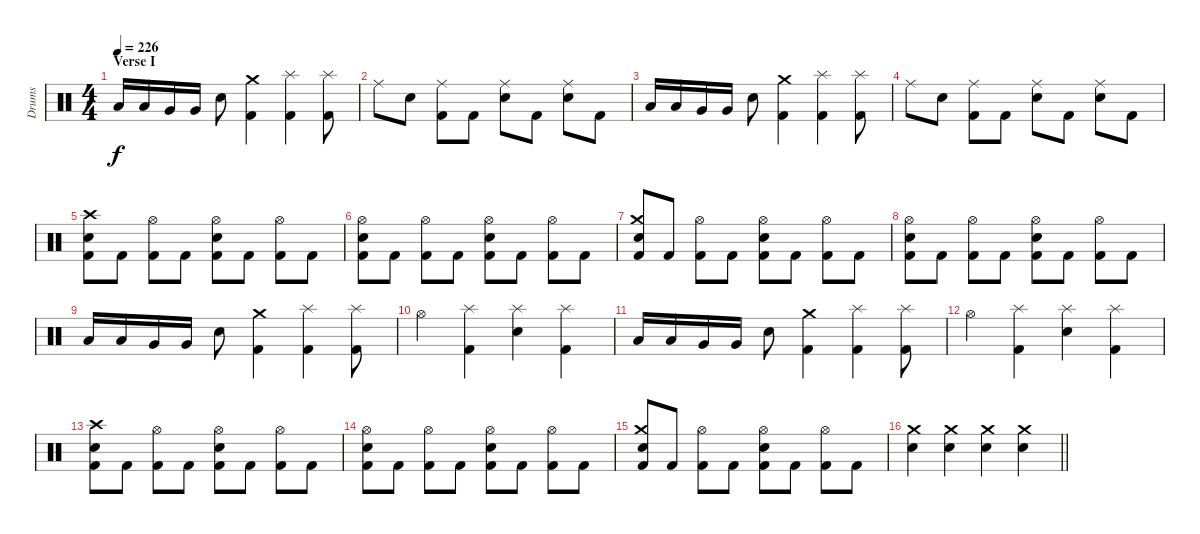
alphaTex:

\track ("Drums" "Drums") {instrument percussion}
\staff {score}
\articulation defaults
\ts (4 4)
\section ("" "Verse I")
\tempo 226
\clef neutral
\ks c "Low Tom (hit)".16{dy f} "Low Tom (hit)".16 "Very Low Tom (hit)".16 "Very Low Tom (hit)".16 "Snare (hit) 2".8
("Crash medium (hit)" "Kick (hit) 2").4 ("Splash (hit)" "Kick (hit) 2").4 ("Splash (hit)" "Kick (hit) 2").8 |
"Ride (middle)".8 "Snare (hit) 2".8 ("Ride (middle)" "Kick (hit) 2").8 "Kick (hit) 2".8 ("Ride (middle)" "Snare (hit) 2").8 "Kick (hit) 2".8 ("Ride (middle)" "Snare (hit) 2").8 "Kick (hit) 2".8 |
"Low Tom (hit)".16 "Low Tom (hit)".16 "Very Low Tom (hit)".16 "Very Low Tom (hit)".16 "Snare (hit) 2".8 ("Crash medium (hit)" "Kick (hit) 2").4 ("Splash (hit)" "Kick (hit) 2").4 ("Splash (hit)" "Kick (hit) 2").8 |
"Ride (middle)".8 "Snare (hit) 2".8 ("Ride (middle)" "Kick (hit) 2").8 "Kick (hit) 2".8 ("Ride (middle)" "Snare (hit) 2").8 "Kick (hit) 2".8 ("Ride (middle)" "Snare (hit) 2").8 "Kick (hit) 2".8 |
("Crash high (hit)" "Snare (hit) 2" "Kick (hit) 2").8 "Kick (hit) 2".8 ("Hi-Hat (open)" "Kick (hit) 2").8 "Kick (hit) 2".8 ("Hi-Hat (open)" "Snare (hit) 2" "Kick (hit) 2").8 "Kick (hit) 2".8 ("Hi-Hat (open)" "Kick (hit) 2").8 "Kick (hit) 2".8 |
("Hi-Hat (open)" "Snare (hit) 2" "Kick (hit) 2").8 "Kick (hit) 2".8 ("Hi-Hat (open)" "Kick (hit) 2").8 "Kick (hit) 2".8 ("Hi-Hat (open)" "Snare (hit) 2" "Kick (hit) 2").8 "Kick (hit) 2".8 ("Hi-Hat (open)" "Kick (hit) 2").8 "Kick (hit) 2".8 |
("Crash medium (hit)" "Snare (hit) 2" "Kick (hit) 2").8 "Kick (hit) 2".8 ("Hi-Hat (open)" "Kick (hit) 2").8 "Kick (hit) 2".8 ("Hi-Hat (open)" "Snare (hit) 2" "Kick (hit) 2").8 "Kick (hit) 2".8 ("Hi-Hat (open)" "Kick (hit) 2").8 "Kick (hit) 2".8 |
("Hi-Hat (open)" "Snare (hit) 2" "Kick (hit) 2").8 "Kick (hit) 2".8 ("Hi-Hat (open)" "Kick (hit) 2").8 "Kick (hit) 2".8 ("Hi-Hat (open)" "Snare (hit) 2" "Kick (hit) 2").8 "Kick (hit) 2".8 ("Hi-Hat (open)" "Kick (hit) 2").8 "Kick (hit) 2".8 |
"Low Tom (hit)".16 "Low Tom (hit)".16 "Very Low Tom (hit)".16 "Very Low Tom (hit)".16 "Snare (hit) 2".8 ("Crash medium (hit)" "Kick (hit) 2").4 ("Splash (hit)" "Kick (hit) 2").4 ("Splash (hit)" "Kick (hit) 2").8 |
"Hi-Hat (open)".4 ("Splash (hit)" "Kick (hit) 2").4 ("Splash (hit)" "Snare (hit) 2").4 ("Splash (hit)" "Kick (hit) 2").4 |
"Low Tom (hit)".16 "Low Tom (hit)".16 "Very Low Tom (hit)".16 "Very Low Tom (hit)".16 "Snare (hit) 2".8 ("Crash medium (hit)" "Kick (hit) 2").4 ("Splash (hit)" "Kick (hit) 2").4 ("Splash (hit)" "Kick (hit) 2").8 |
"Hi-Hat (open)".4 ("Splash (hit)" "Kick (hit) 2").4 ("Splash (hit)" "Snare (hit) 2").4 ("Splash (hit)" "Kick (hit) 2").4 |
("Crash high (hit)" "Snare (hit) 2" "Kick (hit) 2").8 "Kick (hit) 2".8 ("Hi-Hat (open)" "Kick (hit) 2").8 "Kick (hit) 2".8 ("Hi-Hat (open)" "Snare (hit) 2" "Kick (hit) 2").8 "Kick (hit) 2".8 ("Hi-Hat (open)" "Kick (hit) 2").8 "Kick (hit) 2".8 |
("Hi-Hat (open)" "Snare (hit) 2" "Kick (hit) 2").8 "Kick (hit) 2".8 ("Hi-Hat (open)" "Kick (hit) 2").8 "Kick (hit) 2".8 ("Hi-Hat (open)" "Snare (hit) 2" "Kick (hit) 2").8 "Kick (hit) 2".8 ("Hi-Hat (open)" "Kick (hit) 2").8 "Kick (hit) 2".8 |
("Crash medium (hit)" "Snare (hit) 2" "Kick (hit) 2").8 "Kick (hit) 2".8 ("Hi-Hat (open)" "Kick (hit) 2").8 "Kick (hit) 2".8 ("Hi-Hat (open)" "Snare (hit) 2" "Kick (hit) 2").8 "Kick (hit) 2".8 ("Hi-Hat (open)" "Kick (hit) 2").8 "Kick (hit) 2".8 |
\barLineRight lightlight
("Crash medium (hit)" "Snare (hit) 2").4 ("Crash medium (hit)" "Snare (hit) 2").4 ("Crash medium (hit)" "Snare (hit) 2").4 ("Crash medium (hit)" "Snare (hit) 2").4
